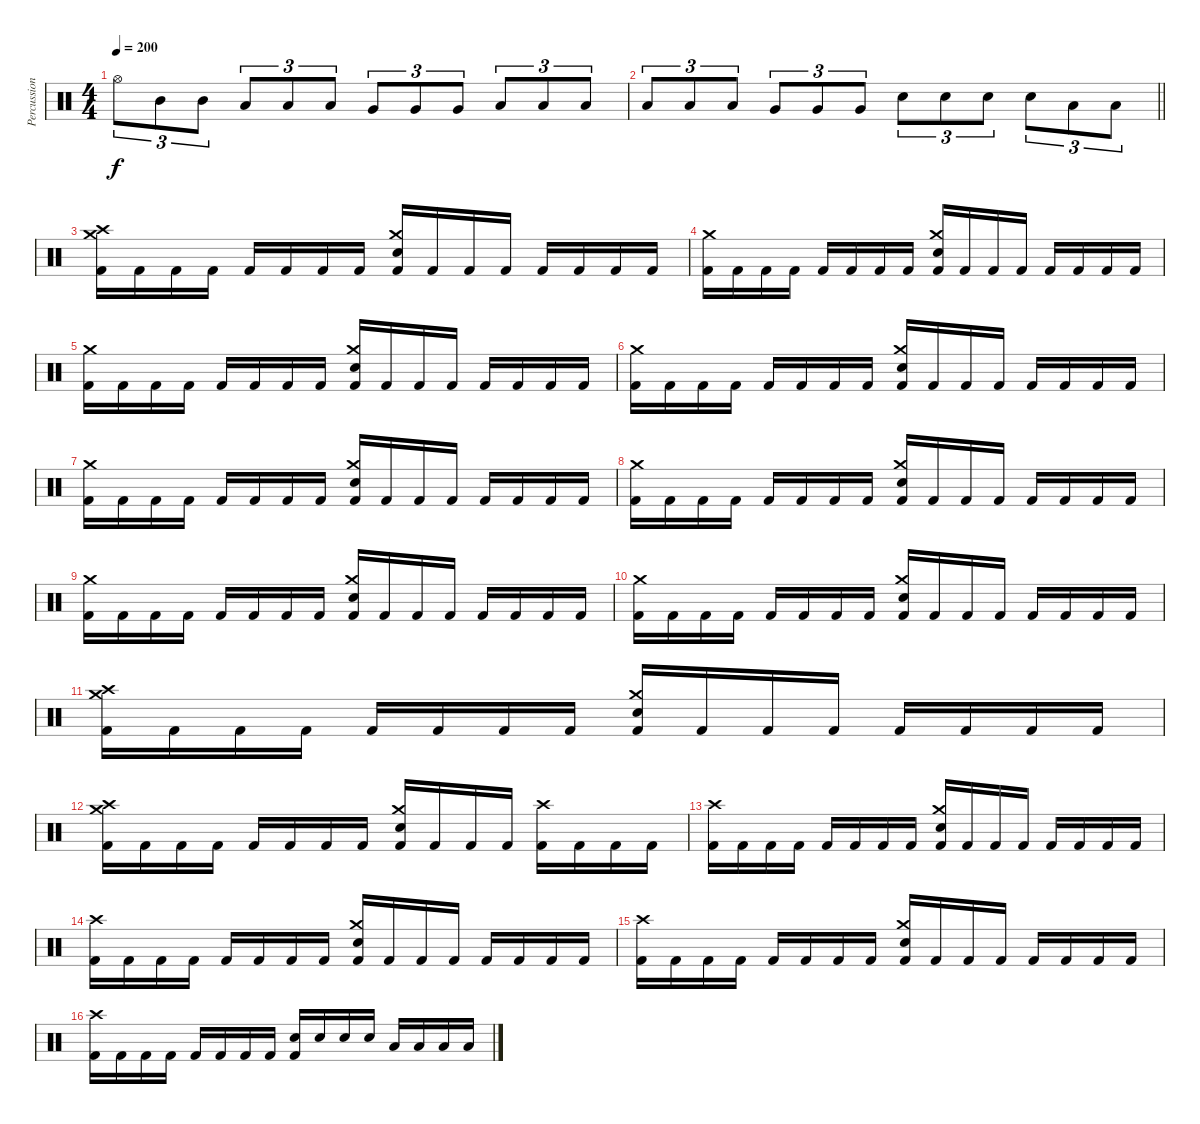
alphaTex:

\track ("Percussion" "Percussion") {instrument percussion}
\staff {score}
\articulation defaults
\ts (4 4)
\tempo 200
\clef neutral
\ks c "Hi-Hat (open)".8{tu (3 2) dy f} "Mid Tom (hit)".8{tu (3 2)} "Mid Tom (hit)".8{tu (3 2)} "Low Tom (hit)".8{tu (3 2)} "Low Tom (hit)".8{tu (3 2)} "Low Tom (hit)".8{tu (3 2)} "Very Low Tom (hit)".8{tu (3 2)} "Very Low Tom (hit)".8{tu (3 2)} "Very Low Tom (hit)".8{tu (3 2)} "Low Floor Tom (hit)".8{tu (3 2)} "Low Floor Tom (hit)".8{tu (3 2)} "Low Floor Tom (hit)".8{tu (3 2)}
|
\barLineRight lightlight "Low Tom (hit)".8{tu (3 2)} "Low Tom (hit)".8{tu (3 2)} "Low Tom (hit)".8{tu (3 2)} "Very Low Tom (hit)".8{tu (3 2)} "Very Low Tom (hit)".8{tu (3 2)} "Very Low Tom (hit)".8{tu (3 2)} "Electric Snare (hit)".8{tu (3 2)} "Electric Snare (hit)".8{tu (3 2)} "Electric Snare (hit)".8{tu (3 2)} "Electric Snare (hit)".8{tu (3 2)} "Low Floor Tom (hit)".8{tu (3 2)} "Low Floor Tom (hit)".8{tu (3 2)}
|
\section ("" "")
("Crash medium (hit)" "Crash high (hit)" "Kick (hit) 2").16 "Kick (hit) 2".16 "Kick (hit) 2".16 "Kick (hit) 2".16 "Kick (hit) 2".16 "Kick (hit) 2".16 "Kick (hit) 2".16 "Kick (hit) 2".16 ("Crash medium (hit)" "Electric Snare (hit)" "Kick (hit) 2").16 "Kick (hit) 2".16 "Kick (hit) 2".16 "Kick (hit) 2".16 "Kick (hit) 2".16 "Kick (hit) 2".16 "Kick (hit) 2".16 "Kick (hit) 2".16 |
("Crash medium (hit)" "Kick (hit) 2").16 "Kick (hit) 2".16 "Kick (hit) 2".16 "Kick (hit) 2".16 "Kick (hit) 2".16 "Kick (hit) 2".16 "Kick (hit) 2".16 "Kick (hit) 2".16 ("Crash medium (hit)" "Electric Snare (hit)" "Kick (hit) 2").16 "Kick (hit) 2".16 "Kick (hit) 2".16 "Kick (hit) 2".16 "Kick (hit) 2".16 "Kick (hit) 2".16 "Kick (hit) 2".16 "Kick (hit) 2".16 |
("Crash medium (hit)" "Kick (hit) 2").16 "Kick (hit) 2".16 "Kick (hit) 2".16 "Kick (hit) 2".16 "Kick (hit) 2".16 "Kick (hit) 2".16 "Kick (hit) 2".16 "Kick (hit) 2".16 ("Crash medium (hit)" "Electric Snare (hit)" "Kick (hit) 2").16 "Kick (hit) 2".16 "Kick (hit) 2".16 "Kick (hit) 2".16 "Kick (hit) 2".16 "Kick (hit) 2".16 "Kick (hit) 2".16 "Kick (hit) 2".16 |
("Crash medium (hit)" "Kick (hit) 2").16 "Kick (hit) 2".16 "Kick (hit) 2".16 "Kick (hit) 2".16 "Kick (hit) 2".16 "Kick (hit) 2".16 "Kick (hit) 2".16 "Kick (hit) 2".16 ("Crash medium (hit)" "Electric Snare (hit)" "Kick (hit) 2").16 "Kick (hit) 2".16 "Kick (hit) 2".16 "Kick (hit) 2".16 "Kick (hit) 2".16 "Kick (hit) 2".16 "Kick (hit) 2".16 "Kick (hit) 2".16 |
("Crash medium (hit)" "Kick (hit) 2").16 "Kick (hit) 2".16 "Kick (hit) 2".16 "Kick (hit) 2".16 "Kick (hit) 2".16 "Kick (hit) 2".16 "Kick (hit) 2".16 "Kick (hit) 2".16 ("Crash medium (hit)" "Electric Snare (hit)" "Kick (hit) 2").16 "Kick (hit) 2".16 "Kick (hit) 2".16 "Kick (hit) 2".16 "Kick (hit) 2".16 "Kick (hit) 2".16 "Kick (hit) 2".16 "Kick (hit) 2".16 |
("Crash medium (hit)" "Kick (hit) 2").16 "Kick (hit) 2".16 "Kick (hit) 2".16 "Kick (hit) 2".16 "Kick (hit) 2".16 "Kick (hit) 2".16 "Kick (hit) 2".16 "Kick (hit) 2".16 ("Crash medium (hit)" "Electric Snare (hit)" "Kick (hit) 2").16 "Kick (hit) 2".16 "Kick (hit) 2".16 "Kick (hit) 2".16 "Kick (hit) 2".16 "Kick (hit) 2".16 "Kick (hit) 2".16 "Kick (hit) 2".16 |
("Crash medium (hit)" "Kick (hit) 2").16 "Kick (hit) 2".16 "Kick (hit) 2".16 "Kick (hit) 2".16 "Kick (hit) 2".16 "Kick (hit) 2".16 "Kick (hit) 2".16 "Kick (hit) 2".16 ("Crash medium (hit)" "Electric Snare (hit)" "Kick (hit) 2").16 "Kick (hit) 2".16 "Kick (hit) 2".16 "Kick (hit) 2".16 "Kick (hit) 2".16 "Kick (hit) 2".16 "Kick (hit) 2".16 "Kick (hit) 2".16 |
("Crash medium (hit)" "Kick (hit) 2").16 "Kick (hit) 2".16 "Kick (hit) 2".16 "Kick (hit) 2".16 "Kick (hit) 2".16 "Kick (hit) 2".16 "Kick (hit) 2".16 "Kick (hit) 2".16 ("Crash medium (hit)" "Electric Snare (hit)" "Kick (hit) 2").16 "Kick (hit) 2".16 "Kick (hit) 2".16 "Kick (hit) 2".16 "Kick (hit) 2".16 "Kick (hit) 2".16 "Kick (hit) 2".16 "Kick (hit) 2".16 |
("Crash medium (hit)" "Crash high (hit)" "Kick (hit) 2").16 "Kick (hit) 2".16 "Kick (hit) 2".16 "Kick (hit) 2".16 "Kick (hit) 2".16 "Kick (hit) 2".16 "Kick (hit) 2".16 "Kick (hit) 2".16 ("Crash medium (hit)" "Electric Snare (hit)" "Kick (hit) 2").16 "Kick (hit) 2".16 "Kick (hit) 2".16 "Kick (hit) 2".16 "Kick (hit) 2".16 "Kick (hit) 2".16 "Kick (hit) 2".16 "Kick (hit) 2".16 |
("Crash medium (hit)" "Crash high (hit)" "Kick (hit) 2").16 "Kick (hit) 2".16 "Kick (hit) 2".16 "Kick (hit) 2".16 "Kick (hit) 2".16 "Kick (hit) 2".16 "Kick (hit) 2".16 "Kick (hit) 2".16 ("Crash medium (hit)" "Electric Snare (hit)" "Kick (hit) 2").16 "Kick (hit) 2".16 "Kick (hit) 2".16 "Kick (hit) 2".16 ("Crash high (hit)" "Kick (hit) 2").16 "Kick (hit) 2".16 "Kick (hit) 2".16 "Kick (hit) 2".16 |
("Crash high (hit)" "Kick (hit) 2").16 "Kick (hit) 2".16 "Kick (hit) 2".16 "Kick (hit) 2".16 "Kick (hit) 2".16 "Kick (hit) 2".16 "Kick (hit) 2".16 "Kick (hit) 2".16 ("Crash medium (hit)" "Electric Snare (hit)" "Kick (hit) 2").16 "Kick (hit) 2".16 "Kick (hit) 2".16 "Kick (hit) 2".16 "Kick (hit) 2".16 "Kick (hit) 2".16 "Kick (hit) 2".16 "Kick (hit) 2".16 |
("Crash high (hit)" "Kick (hit) 2").16 "Kick (hit) 2".16 "Kick (hit) 2".16 "Kick (hit) 2".16 "Kick (hit) 2".16 "Kick (hit) 2".16 "Kick (hit) 2".16 "Kick (hit) 2".16 ("Crash medium (hit)" "Electric Snare (hit)" "Kick (hit) 2").16 "Kick (hit) 2".16 "Kick (hit) 2".16 "Kick (hit) 2".16 "Kick (hit) 2".16 "Kick (hit) 2".16 "Kick (hit) 2".16 "Kick (hit) 2".16 |
("Crash high (hit)" "Kick (hit) 2").16 "Kick (hit) 2".16 "Kick (hit) 2".16 "Kick (hit) 2".16 "Kick (hit) 2".16 "Kick (hit) 2".16 "Kick (hit) 2".16 "Kick (hit) 2".16 ("Crash medium (hit)" "Electric Snare (hit)" "Kick (hit) 2").16 "Kick (hit) 2".16 "Kick (hit) 2".16 "Kick (hit) 2".16 "Kick (hit) 2".16 "Kick (hit) 2".16 "Kick (hit) 2".16 "Kick (hit) 2".16 |
("Crash high (hit)" "Kick (hit) 2").16 "Kick (hit) 2".16 "Kick (hit) 2".16 "Kick (hit) 2".16 "Kick (hit) 2".16 "Kick (hit) 2".16 "Kick (hit) 2".16 "Kick (hit) 2".16 ("Electric Snare (hit)" "Kick (hit) 2").16 "Electric Snare (hit)".16 "Electric Snare (hit)".16 "Electric Snare (hit)".16 "Low Floor Tom (hit)".16 "Low Floor Tom (hit)".16 "Low Floor Tom (hit)".16 "Low Floor Tom (hit)".16
